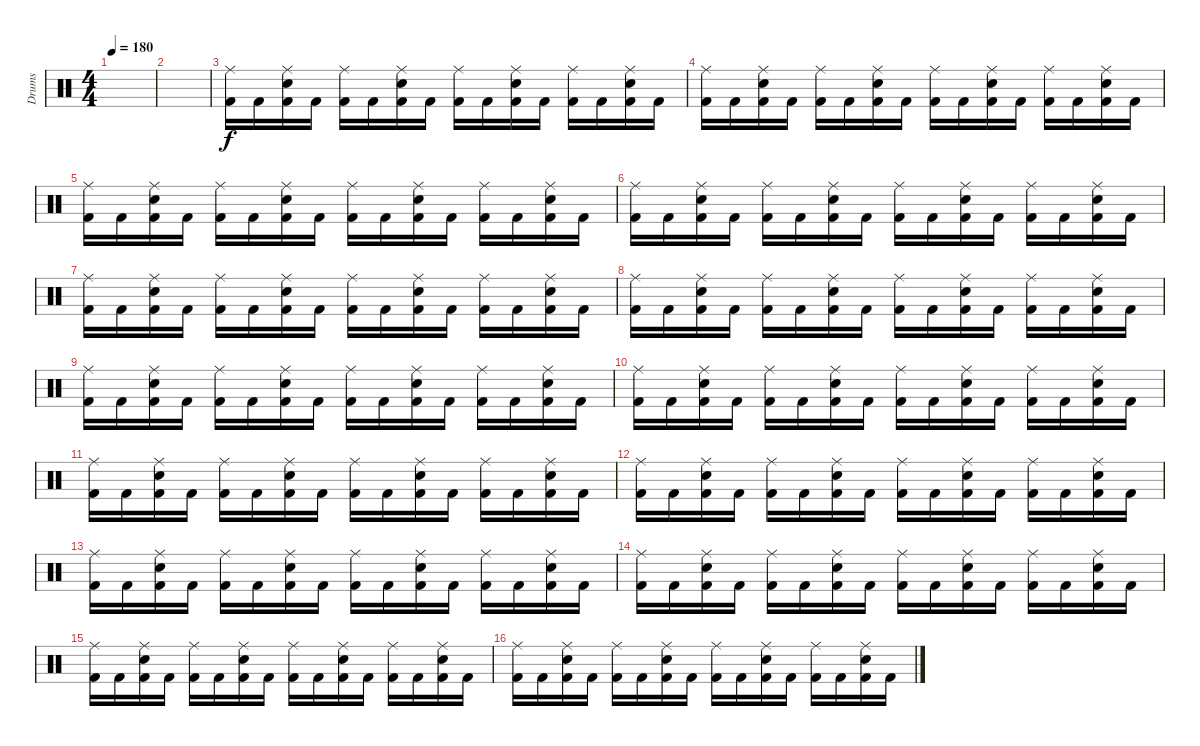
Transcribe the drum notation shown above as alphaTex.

\track ("Drums" "Drums") {instrument percussion}
\staff {score}
\articulation defaults
\ts (4 4)
\tempo 180
\clef neutral
\ks c
|
|
("Ride (middle)" "Kick (hit) 2").16 "Kick (hit) 2".16 ("Ride (middle)" "Snare (hit) 2" "Kick (hit) 2").16 "Kick (hit) 2".16 ("Ride (middle)" "Kick (hit) 2").16 "Kick (hit) 2".16 ("Ride (middle)" "Snare (hit) 2" "Kick (hit) 2").16 "Kick (hit) 2".16 ("Ride (middle)" "Kick (hit) 2").16 "Kick (hit) 2".16 ("Ride (middle)" "Snare (hit) 2" "Kick (hit) 2").16 "Kick (hit) 2".16 ("Ride (middle)" "Kick (hit) 2").16 "Kick (hit) 2".16 ("Ride (middle)" "Snare (hit) 2" "Kick (hit) 2").16 "Kick (hit) 2".16 |
("Ride (middle)" "Kick (hit) 2").16 "Kick (hit) 2".16 ("Ride (middle)" "Snare (hit) 2" "Kick (hit) 2").16 "Kick (hit) 2".16 ("Ride (middle)" "Kick (hit) 2").16 "Kick (hit) 2".16 ("Ride (middle)" "Snare (hit) 2" "Kick (hit) 2").16 "Kick (hit) 2".16 ("Ride (middle)" "Kick (hit) 2").16 "Kick (hit) 2".16 ("Ride (middle)" "Snare (hit) 2" "Kick (hit) 2").16 "Kick (hit) 2".16 ("Ride (middle)" "Kick (hit) 2").16 "Kick (hit) 2".16 ("Ride (middle)" "Snare (hit) 2" "Kick (hit) 2").16 "Kick (hit) 2".16 |
("Ride (middle)" "Kick (hit) 2").16 "Kick (hit) 2".16 ("Ride (middle)" "Snare (hit) 2" "Kick (hit) 2").16 "Kick (hit) 2".16 ("Ride (middle)" "Kick (hit) 2").16 "Kick (hit) 2".16 ("Ride (middle)" "Snare (hit) 2" "Kick (hit) 2").16 "Kick (hit) 2".16 ("Ride (middle)" "Kick (hit) 2").16 "Kick (hit) 2".16 ("Ride (middle)" "Snare (hit) 2" "Kick (hit) 2").16 "Kick (hit) 2".16 ("Ride (middle)" "Kick (hit) 2").16 "Kick (hit) 2".16 ("Ride (middle)" "Snare (hit) 2" "Kick (hit) 2").16 "Kick (hit) 2".16 |
("Ride (middle)" "Kick (hit) 2").16 "Kick (hit) 2".16 ("Ride (middle)" "Snare (hit) 2" "Kick (hit) 2").16 "Kick (hit) 2".16 ("Ride (middle)" "Kick (hit) 2").16 "Kick (hit) 2".16 ("Ride (middle)" "Snare (hit) 2" "Kick (hit) 2").16 "Kick (hit) 2".16 ("Ride (middle)" "Kick (hit) 2").16 "Kick (hit) 2".16 ("Ride (middle)" "Snare (hit) 2" "Kick (hit) 2").16 "Kick (hit) 2".16 ("Ride (middle)" "Kick (hit) 2").16 "Kick (hit) 2".16 ("Ride (middle)" "Snare (hit) 2" "Kick (hit) 2").16 "Kick (hit) 2".16 |
("Ride (middle)" "Kick (hit) 2").16 "Kick (hit) 2".16 ("Ride (middle)" "Snare (hit) 2" "Kick (hit) 2").16 "Kick (hit) 2".16 ("Ride (middle)" "Kick (hit) 2").16 "Kick (hit) 2".16 ("Ride (middle)" "Snare (hit) 2" "Kick (hit) 2").16 "Kick (hit) 2".16 ("Ride (middle)" "Kick (hit) 2").16 "Kick (hit) 2".16 ("Ride (middle)" "Snare (hit) 2" "Kick (hit) 2").16 "Kick (hit) 2".16 ("Ride (middle)" "Kick (hit) 2").16 "Kick (hit) 2".16 ("Ride (middle)" "Snare (hit) 2" "Kick (hit) 2").16 "Kick (hit) 2".16 |
("Ride (middle)" "Kick (hit) 2").16 "Kick (hit) 2".16 ("Ride (middle)" "Snare (hit) 2" "Kick (hit) 2").16 "Kick (hit) 2".16 ("Ride (middle)" "Kick (hit) 2").16 "Kick (hit) 2".16 ("Ride (middle)" "Snare (hit) 2" "Kick (hit) 2").16 "Kick (hit) 2".16 ("Ride (middle)" "Kick (hit) 2").16 "Kick (hit) 2".16 ("Ride (middle)" "Snare (hit) 2" "Kick (hit) 2").16 "Kick (hit) 2".16 ("Ride (middle)" "Kick (hit) 2").16 "Kick (hit) 2".16 ("Ride (middle)" "Snare (hit) 2" "Kick (hit) 2").16 "Kick (hit) 2".16 |
("Ride (middle)" "Kick (hit) 2").16 "Kick (hit) 2".16 ("Ride (middle)" "Snare (hit) 2" "Kick (hit) 2").16 "Kick (hit) 2".16 ("Ride (middle)" "Kick (hit) 2").16 "Kick (hit) 2".16 ("Ride (middle)" "Snare (hit) 2" "Kick (hit) 2").16 "Kick (hit) 2".16 ("Ride (middle)" "Kick (hit) 2").16 "Kick (hit) 2".16 ("Ride (middle)" "Snare (hit) 2" "Kick (hit) 2").16 "Kick (hit) 2".16 ("Ride (middle)" "Kick (hit) 2").16 "Kick (hit) 2".16 ("Ride (middle)" "Snare (hit) 2" "Kick (hit) 2").16 "Kick (hit) 2".16 |
("Ride (middle)" "Kick (hit) 2").16 "Kick (hit) 2".16 ("Ride (middle)" "Snare (hit) 2" "Kick (hit) 2").16 "Kick (hit) 2".16 ("Ride (middle)" "Kick (hit) 2").16 "Kick (hit) 2".16 ("Ride (middle)" "Snare (hit) 2" "Kick (hit) 2").16 "Kick (hit) 2".16 ("Ride (middle)" "Kick (hit) 2").16 "Kick (hit) 2".16 ("Ride (middle)" "Snare (hit) 2" "Kick (hit) 2").16 "Kick (hit) 2".16 ("Ride (middle)" "Kick (hit) 2").16 "Kick (hit) 2".16 ("Ride (middle)" "Snare (hit) 2" "Kick (hit) 2").16 "Kick (hit) 2".16 |
("Ride (middle)" "Kick (hit) 2").16 "Kick (hit) 2".16 ("Ride (middle)" "Snare (hit) 2" "Kick (hit) 2").16 "Kick (hit) 2".16 ("Ride (middle)" "Kick (hit) 2").16 "Kick (hit) 2".16 ("Ride (middle)" "Snare (hit) 2" "Kick (hit) 2").16 "Kick (hit) 2".16 ("Ride (middle)" "Kick (hit) 2").16 "Kick (hit) 2".16 ("Ride (middle)" "Snare (hit) 2" "Kick (hit) 2").16 "Kick (hit) 2".16 ("Ride (middle)" "Kick (hit) 2").16 "Kick (hit) 2".16 ("Ride (middle)" "Snare (hit) 2" "Kick (hit) 2").16 "Kick (hit) 2".16 |
("Ride (middle)" "Kick (hit) 2").16 "Kick (hit) 2".16 ("Ride (middle)" "Snare (hit) 2" "Kick (hit) 2").16 "Kick (hit) 2".16 ("Ride (middle)" "Kick (hit) 2").16 "Kick (hit) 2".16 ("Ride (middle)" "Snare (hit) 2" "Kick (hit) 2").16 "Kick (hit) 2".16 ("Ride (middle)" "Kick (hit) 2").16 "Kick (hit) 2".16 ("Ride (middle)" "Snare (hit) 2" "Kick (hit) 2").16 "Kick (hit) 2".16 ("Ride (middle)" "Kick (hit) 2").16 "Kick (hit) 2".16 ("Ride (middle)" "Snare (hit) 2" "Kick (hit) 2").16 "Kick (hit) 2".16 |
("Ride (middle)" "Kick (hit) 2").16 "Kick (hit) 2".16 ("Ride (middle)" "Snare (hit) 2" "Kick (hit) 2").16 "Kick (hit) 2".16 ("Ride (middle)" "Kick (hit) 2").16 "Kick (hit) 2".16 ("Ride (middle)" "Snare (hit) 2" "Kick (hit) 2").16 "Kick (hit) 2".16 ("Ride (middle)" "Kick (hit) 2").16 "Kick (hit) 2".16 ("Ride (middle)" "Snare (hit) 2" "Kick (hit) 2").16 "Kick (hit) 2".16 ("Ride (middle)" "Kick (hit) 2").16 "Kick (hit) 2".16 ("Ride (middle)" "Snare (hit) 2" "Kick (hit) 2").16 "Kick (hit) 2".16 |
("Ride (middle)" "Kick (hit) 2").16 "Kick (hit) 2".16 ("Ride (middle)" "Snare (hit) 2" "Kick (hit) 2").16 "Kick (hit) 2".16 ("Ride (middle)" "Kick (hit) 2").16 "Kick (hit) 2".16 ("Ride (middle)" "Snare (hit) 2" "Kick (hit) 2").16 "Kick (hit) 2".16 ("Ride (middle)" "Kick (hit) 2").16 "Kick (hit) 2".16 ("Ride (middle)" "Snare (hit) 2" "Kick (hit) 2").16 "Kick (hit) 2".16 ("Ride (middle)" "Kick (hit) 2").16 "Kick (hit) 2".16 ("Ride (middle)" "Snare (hit) 2" "Kick (hit) 2").16 "Kick (hit) 2".16 |
("Ride (middle)" "Kick (hit) 2").16 "Kick (hit) 2".16 ("Ride (middle)" "Snare (hit) 2" "Kick (hit) 2").16 "Kick (hit) 2".16 ("Ride (middle)" "Kick (hit) 2").16 "Kick (hit) 2".16 ("Ride (middle)" "Snare (hit) 2" "Kick (hit) 2").16 "Kick (hit) 2".16 ("Ride (middle)" "Kick (hit) 2").16 "Kick (hit) 2".16 ("Ride (middle)" "Snare (hit) 2" "Kick (hit) 2").16 "Kick (hit) 2".16 ("Ride (middle)" "Kick (hit) 2").16 "Kick (hit) 2".16 ("Ride (middle)" "Snare (hit) 2" "Kick (hit) 2").16 "Kick (hit) 2".16 |
("Ride (middle)" "Kick (hit) 2").16 "Kick (hit) 2".16 ("Ride (middle)" "Snare (hit) 2" "Kick (hit) 2").16 "Kick (hit) 2".16 ("Ride (middle)" "Kick (hit) 2").16 "Kick (hit) 2".16 ("Ride (middle)" "Snare (hit) 2" "Kick (hit) 2").16 "Kick (hit) 2".16 ("Ride (middle)" "Kick (hit) 2").16 "Kick (hit) 2".16 ("Ride (middle)" "Snare (hit) 2" "Kick (hit) 2").16 "Kick (hit) 2".16 ("Ride (middle)" "Kick (hit) 2").16 "Kick (hit) 2".16 ("Ride (middle)" "Snare (hit) 2" "Kick (hit) 2").16 "Kick (hit) 2".16
